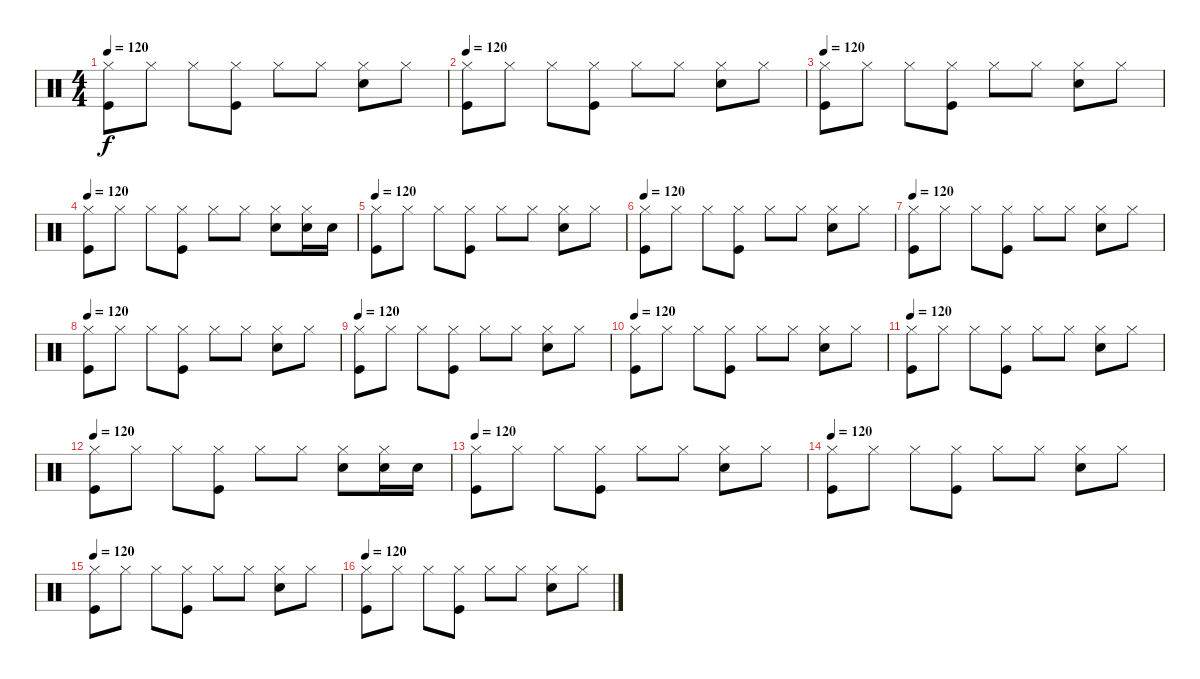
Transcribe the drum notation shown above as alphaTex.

\track "" {instrument percussion}
\staff {score}
\articulation defaults
\ts (4 4)
\tempo 120
\clef neutral
\ks c
("Hi-Hat (closed)" "Kick (hit)").8{dy f} "Hi-Hat (closed)".8 "Hi-Hat (closed)".8 ("Kick (hit)" "Hi-Hat (closed)").8 "Hi-Hat (closed)".8 "Hi-Hat (closed)".8 ("Electric Snare (hit)" "Hi-Hat (closed)").8 "Hi-Hat (closed)".8 |
\tempo 120
("Hi-Hat (closed)" "Kick (hit)").8 "Hi-Hat (closed)".8 "Hi-Hat (closed)".8 ("Kick (hit)" "Hi-Hat (closed)").8 "Hi-Hat (closed)".8 "Hi-Hat (closed)".8 ("Electric Snare (hit)" "Hi-Hat (closed)").8 "Hi-Hat (closed)".8 |
\tempo 120
("Hi-Hat (closed)" "Kick (hit)").8 "Hi-Hat (closed)".8 "Hi-Hat (closed)".8 ("Kick (hit)" "Hi-Hat (closed)").8 "Hi-Hat (closed)".8 "Hi-Hat (closed)".8 ("Electric Snare (hit)" "Hi-Hat (closed)").8 "Hi-Hat (closed)".8 |
\tempo 120
("Hi-Hat (closed)" "Kick (hit)").8 "Hi-Hat (closed)".8 "Hi-Hat (closed)".8 ("Kick (hit)" "Hi-Hat (closed)").8 "Hi-Hat (closed)".8 "Hi-Hat (closed)".8 ("Electric Snare (hit)" "Hi-Hat (closed)").8 ("Electric Snare (hit)" "Hi-Hat (closed)").16 "Electric Snare (hit)".16 |
\tempo 120
("Hi-Hat (closed)" "Kick (hit)").8 "Hi-Hat (closed)".8 "Hi-Hat (closed)".8 ("Kick (hit)" "Hi-Hat (closed)").8 "Hi-Hat (closed)".8 "Hi-Hat (closed)".8 ("Electric Snare (hit)" "Hi-Hat (closed)").8 "Hi-Hat (closed)".8 |
\tempo 120
("Hi-Hat (closed)" "Kick (hit)").8 "Hi-Hat (closed)".8 "Hi-Hat (closed)".8 ("Kick (hit)" "Hi-Hat (closed)").8 "Hi-Hat (closed)".8 "Hi-Hat (closed)".8 ("Electric Snare (hit)" "Hi-Hat (closed)").8 "Hi-Hat (closed)".8 |
\tempo 120
("Hi-Hat (closed)" "Kick (hit)").8 "Hi-Hat (closed)".8 "Hi-Hat (closed)".8 ("Kick (hit)" "Hi-Hat (closed)").8 "Hi-Hat (closed)".8 "Hi-Hat (closed)".8 ("Electric Snare (hit)" "Hi-Hat (closed)").8 "Hi-Hat (closed)".8 |
\tempo 120
("Hi-Hat (closed)" "Kick (hit)").8 "Hi-Hat (closed)".8 "Hi-Hat (closed)".8 ("Kick (hit)" "Hi-Hat (closed)").8 "Hi-Hat (closed)".8 "Hi-Hat (closed)".8 ("Electric Snare (hit)" "Hi-Hat (closed)").8 "Hi-Hat (closed)".8 |
\tempo 120
("Hi-Hat (closed)" "Kick (hit)").8 "Hi-Hat (closed)".8 "Hi-Hat (closed)".8 ("Kick (hit)" "Hi-Hat (closed)").8 "Hi-Hat (closed)".8 "Hi-Hat (closed)".8 ("Electric Snare (hit)" "Hi-Hat (closed)").8 "Hi-Hat (closed)".8 |
\tempo 120
("Hi-Hat (closed)" "Kick (hit)").8 "Hi-Hat (closed)".8 "Hi-Hat (closed)".8 ("Kick (hit)" "Hi-Hat (closed)").8 "Hi-Hat (closed)".8 "Hi-Hat (closed)".8 ("Electric Snare (hit)" "Hi-Hat (closed)").8 "Hi-Hat (closed)".8 |
\tempo 120
("Hi-Hat (closed)" "Kick (hit)").8 "Hi-Hat (closed)".8 "Hi-Hat (closed)".8 ("Kick (hit)" "Hi-Hat (closed)").8 "Hi-Hat (closed)".8 "Hi-Hat (closed)".8 ("Electric Snare (hit)" "Hi-Hat (closed)").8 "Hi-Hat (closed)".8 |
\tempo 120
("Hi-Hat (closed)" "Kick (hit)").8 "Hi-Hat (closed)".8 "Hi-Hat (closed)".8 ("Kick (hit)" "Hi-Hat (closed)").8 "Hi-Hat (closed)".8 "Hi-Hat (closed)".8 ("Electric Snare (hit)" "Hi-Hat (closed)").8 ("Electric Snare (hit)" "Hi-Hat (closed)").16 "Electric Snare (hit)".16 |
\tempo 120
("Hi-Hat (closed)" "Kick (hit)").8 "Hi-Hat (closed)".8 "Hi-Hat (closed)".8 ("Kick (hit)" "Hi-Hat (closed)").8 "Hi-Hat (closed)".8 "Hi-Hat (closed)".8 ("Electric Snare (hit)" "Hi-Hat (closed)").8 "Hi-Hat (closed)".8 |
\tempo 120
("Hi-Hat (closed)" "Kick (hit)").8 "Hi-Hat (closed)".8 "Hi-Hat (closed)".8 ("Kick (hit)" "Hi-Hat (closed)").8 "Hi-Hat (closed)".8 "Hi-Hat (closed)".8 ("Electric Snare (hit)" "Hi-Hat (closed)").8 "Hi-Hat (closed)".8 |
\tempo 120
("Hi-Hat (closed)" "Kick (hit)").8 "Hi-Hat (closed)".8 "Hi-Hat (closed)".8 ("Kick (hit)" "Hi-Hat (closed)").8 "Hi-Hat (closed)".8 "Hi-Hat (closed)".8 ("Electric Snare (hit)" "Hi-Hat (closed)").8 "Hi-Hat (closed)".8 |
\tempo 120
("Hi-Hat (closed)" "Kick (hit)").8 "Hi-Hat (closed)".8 "Hi-Hat (closed)".8 ("Kick (hit)" "Hi-Hat (closed)").8 "Hi-Hat (closed)".8 "Hi-Hat (closed)".8 ("Electric Snare (hit)" "Hi-Hat (closed)").8 "Hi-Hat (closed)".8
